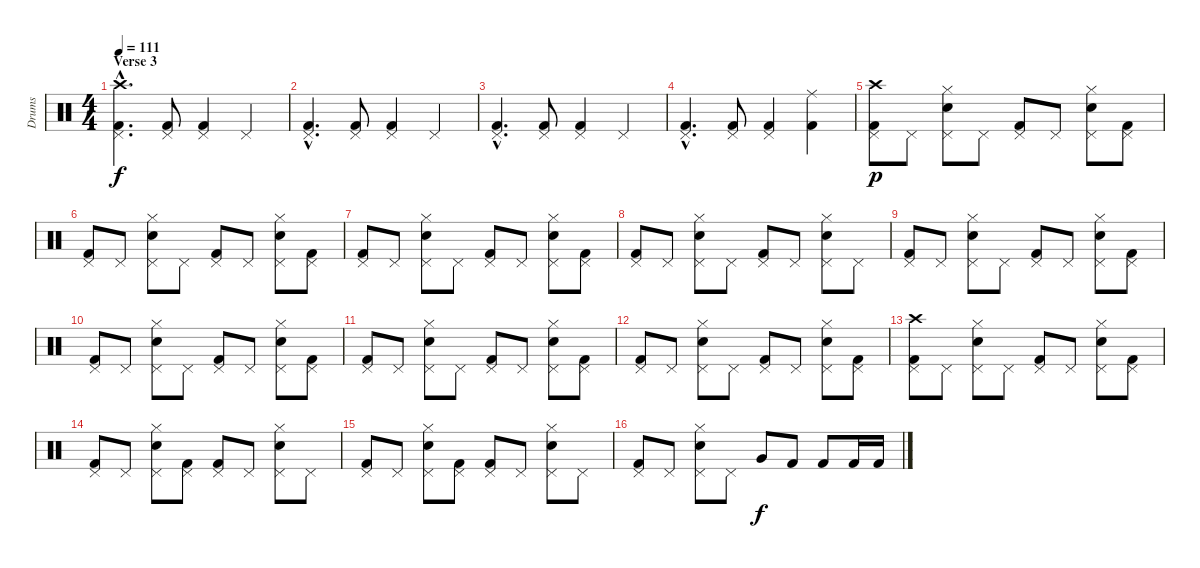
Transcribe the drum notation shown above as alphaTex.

\track ("Drums" "Drums") {instrument percussion}
\staff {score}
\articulation defaults
\ts (4 4)
\section ("" "Verse 3")
\tempo 111
\clef neutral
\ks c
("Pedal Hi-Hat (hit)"{hac} "Kick (hit) 2"{hac} "Crash high (hit)"{hac}).4{d dy f} ("Pedal Hi-Hat (hit)" "Kick (hit) 2").8 ("Pedal Hi-Hat (hit)" "Kick (hit) 2").4 "Pedal Hi-Hat (hit)".4 |
("Pedal Hi-Hat (hit)"{hac} "Kick (hit) 2"{hac}).4{d} ("Pedal Hi-Hat (hit)" "Kick (hit) 2").8 ("Pedal Hi-Hat (hit)" "Kick (hit) 2").4 "Pedal Hi-Hat (hit)".4 |
("Pedal Hi-Hat (hit)"{hac} "Kick (hit) 2"{hac}).4{d} ("Pedal Hi-Hat (hit)" "Kick (hit) 2").8 ("Pedal Hi-Hat (hit)" "Kick (hit) 2").4 "Pedal Hi-Hat (hit)".4 |
("Pedal Hi-Hat (hit)"{hac} "Kick (hit) 2"{hac}).4{d} ("Pedal Hi-Hat (hit)" "Kick (hit) 2").8 ("Pedal Hi-Hat (hit)" "Kick (hit) 2").4 ("Ride (middle)" "Kick (hit) 2").4 |
("Pedal Hi-Hat (hit)" "Kick (hit) 2" "Crash high (hit)").8{dy p} "Pedal Hi-Hat (hit)".8 ("Pedal Hi-Hat (hit)" "Hand Clap (hit)" "Hi-Hat (closed)").8 "Pedal Hi-Hat (hit)".8 ("Pedal Hi-Hat (hit)" "Kick (hit) 2").8 "Pedal Hi-Hat (hit)".8 ("Pedal Hi-Hat (hit)" "Hand Clap (hit)" "Hi-Hat (closed)").8 ("Pedal Hi-Hat (hit)" "Kick (hit) 2").8 |
("Pedal Hi-Hat (hit)" "Kick (hit) 2").8 "Pedal Hi-Hat (hit)".8 ("Pedal Hi-Hat (hit)" "Hand Clap (hit)" "Hi-Hat (closed)").8 "Pedal Hi-Hat (hit)".8 ("Pedal Hi-Hat (hit)" "Kick (hit) 2").8 "Pedal Hi-Hat (hit)".8 ("Pedal Hi-Hat (hit)" "Hand Clap (hit)" "Hi-Hat (closed)").8 ("Pedal Hi-Hat (hit)" "Kick (hit) 2").8 |
("Pedal Hi-Hat (hit)" "Kick (hit) 2").8 "Pedal Hi-Hat (hit)".8 ("Pedal Hi-Hat (hit)" "Hand Clap (hit)" "Hi-Hat (closed)").8 "Pedal Hi-Hat (hit)".8 ("Pedal Hi-Hat (hit)" "Kick (hit) 2").8 "Pedal Hi-Hat (hit)".8 ("Pedal Hi-Hat (hit)" "Hand Clap (hit)" "Hi-Hat (closed)").8 ("Pedal Hi-Hat (hit)" "Kick (hit) 2").8 |
("Pedal Hi-Hat (hit)" "Kick (hit) 2").8 "Pedal Hi-Hat (hit)".8 ("Pedal Hi-Hat (hit)" "Hand Clap (hit)" "Hi-Hat (closed)").8 "Pedal Hi-Hat (hit)".8 ("Pedal Hi-Hat (hit)" "Kick (hit) 2").8 "Pedal Hi-Hat (hit)".8 ("Pedal Hi-Hat (hit)" "Hand Clap (hit)" "Hi-Hat (closed)").8 "Pedal Hi-Hat (hit)".8 |
("Pedal Hi-Hat (hit)" "Kick (hit) 2").8 "Pedal Hi-Hat (hit)".8 ("Pedal Hi-Hat (hit)" "Hand Clap (hit)" "Hi-Hat (closed)").8 "Pedal Hi-Hat (hit)".8 ("Pedal Hi-Hat (hit)" "Kick (hit) 2").8 "Pedal Hi-Hat (hit)".8 ("Pedal Hi-Hat (hit)" "Hand Clap (hit)" "Hi-Hat (closed)").8 ("Pedal Hi-Hat (hit)" "Kick (hit) 2").8 |
("Pedal Hi-Hat (hit)" "Kick (hit) 2").8 "Pedal Hi-Hat (hit)".8 ("Pedal Hi-Hat (hit)" "Hand Clap (hit)" "Hi-Hat (closed)").8 "Pedal Hi-Hat (hit)".8 ("Pedal Hi-Hat (hit)" "Kick (hit) 2").8 "Pedal Hi-Hat (hit)".8 ("Pedal Hi-Hat (hit)" "Hand Clap (hit)" "Hi-Hat (closed)").8 ("Pedal Hi-Hat (hit)" "Kick (hit) 2").8 |
("Pedal Hi-Hat (hit)" "Kick (hit) 2").8 "Pedal Hi-Hat (hit)".8 ("Pedal Hi-Hat (hit)" "Hand Clap (hit)" "Hi-Hat (closed)").8 "Pedal Hi-Hat (hit)".8 ("Pedal Hi-Hat (hit)" "Kick (hit) 2").8 "Pedal Hi-Hat (hit)".8 ("Pedal Hi-Hat (hit)" "Hand Clap (hit)" "Hi-Hat (closed)").8 ("Pedal Hi-Hat (hit)" "Kick (hit) 2").8 |
("Pedal Hi-Hat (hit)" "Kick (hit) 2").8 "Pedal Hi-Hat (hit)".8 ("Pedal Hi-Hat (hit)" "Hand Clap (hit)" "Hi-Hat (closed)").8 "Pedal Hi-Hat (hit)".8 ("Pedal Hi-Hat (hit)" "Kick (hit) 2").8 "Pedal Hi-Hat (hit)".8 ("Pedal Hi-Hat (hit)" "Hand Clap (hit)" "Hi-Hat (closed)").8 ("Pedal Hi-Hat (hit)" "Kick (hit) 2").8 |
("Pedal Hi-Hat (hit)" "Kick (hit) 2" "Crash high (hit)").8 "Pedal Hi-Hat (hit)".8 ("Pedal Hi-Hat (hit)" "Hand Clap (hit)" "Hi-Hat (closed)").8 "Pedal Hi-Hat (hit)".8 ("Pedal Hi-Hat (hit)" "Kick (hit) 2").8 "Pedal Hi-Hat (hit)".8 ("Pedal Hi-Hat (hit)" "Hand Clap (hit)" "Hi-Hat (closed)").8 ("Pedal Hi-Hat (hit)" "Kick (hit) 2").8 |
("Pedal Hi-Hat (hit)" "Kick (hit) 2").8 "Pedal Hi-Hat (hit)".8 ("Pedal Hi-Hat (hit)" "Hand Clap (hit)" "Hi-Hat (closed)").8 ("Pedal Hi-Hat (hit)" "Kick (hit) 2").8 ("Pedal Hi-Hat (hit)" "Kick (hit) 2").8 "Pedal Hi-Hat (hit)".8 ("Pedal Hi-Hat (hit)" "Hand Clap (hit)" "Hi-Hat (closed)").8 "Pedal Hi-Hat (hit)".8 |
("Pedal Hi-Hat (hit)" "Kick (hit) 2").8 "Pedal Hi-Hat (hit)".8 ("Pedal Hi-Hat (hit)" "Hand Clap (hit)" "Hi-Hat (closed)").8 ("Pedal Hi-Hat (hit)" "Kick (hit) 2").8 ("Pedal Hi-Hat (hit)" "Kick (hit) 2").8 "Pedal Hi-Hat (hit)".8 ("Pedal Hi-Hat (hit)" "Hand Clap (hit)" "Hi-Hat (closed)").8 "Pedal Hi-Hat (hit)".8 |
("Pedal Hi-Hat (hit)" "Kick (hit) 2").8 "Pedal Hi-Hat (hit)".8 ("Pedal Hi-Hat (hit)" "Hand Clap (hit)" "Hi-Hat (closed)").8 "Pedal Hi-Hat (hit)".8 "Very Low Tom (hit)".8{dy f} "Kick (hit) 2".8 "Kick (hit) 2".8 "Kick (hit) 2".16 "Kick (hit) 2".16
